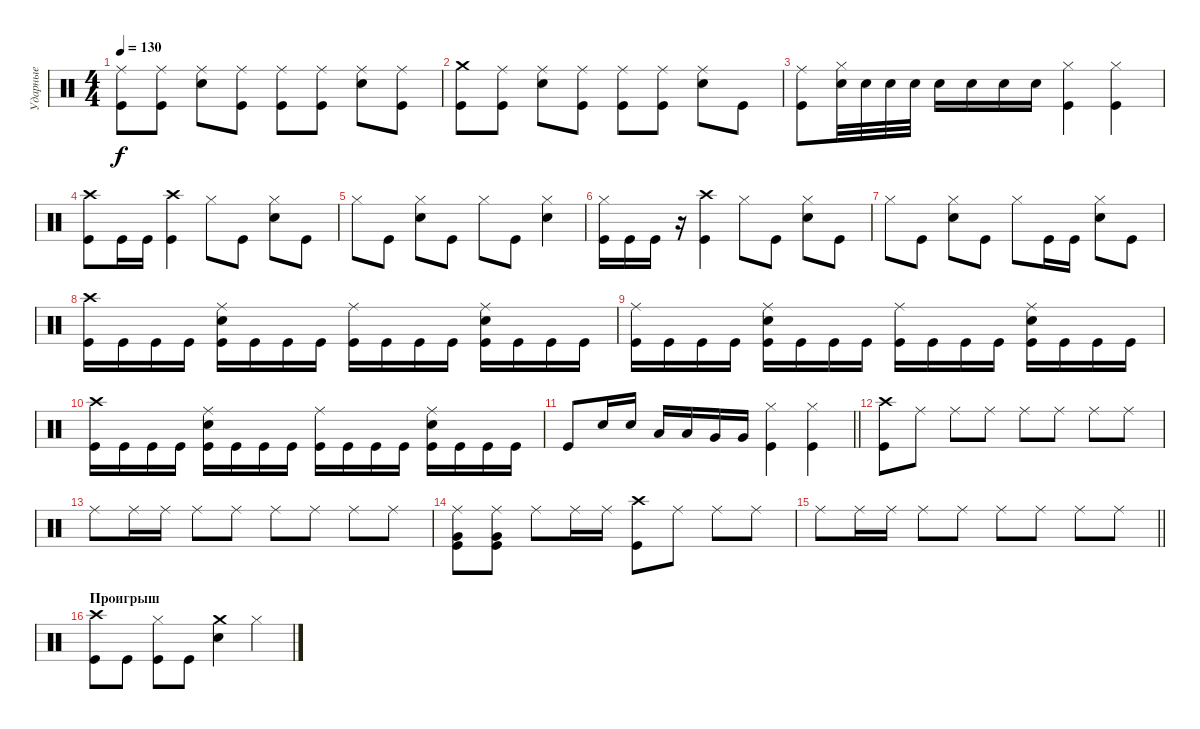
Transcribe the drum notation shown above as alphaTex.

\track ("Ударные" "Ударные") {instrument percussion}
\staff {score}
\articulation defaults
\ts (4 4)
\tempo 130
\clef neutral
\ks c
("Ride (middle)" "Kick (hit)").8{dy f} ("Ride (middle)" "Kick (hit)").8 ("Ride (middle)" "Snare (hit) 2").8 ("Ride (middle)" "Kick (hit)").8 ("Ride (middle)" "Kick (hit)").8 ("Ride (middle)" "Kick (hit)").8 ("Ride (middle)" "Snare (hit) 2").8 ("Ride (middle)" "Kick (hit)").8 |
("Crash medium (hit)" "Kick (hit)").8 ("Ride (middle)" "Kick (hit)").8 ("Ride (middle)" "Snare (hit) 2").8 ("Ride (middle)" "Kick (hit)").8 ("Ride (middle)" "Kick (hit)").8 ("Ride (middle)" "Kick (hit)").8 ("Ride (middle)" "Snare (hit) 2").8 "Kick (hit)".8 |
("Ride (middle)" "Kick (hit)").8 ("Hi-Hat (closed)" "Snare (hit) 2").32 "Snare (hit) 2".32 "Snare (hit) 2".32 "Snare (hit) 2".32 "Snare (hit) 2".16 "Snare (hit) 2".16 "Snare (hit) 2".16 "Snare (hit) 2".16 ("Hi-Hat (closed)" "Kick (hit)").4 ("Hi-Hat (closed)" "Kick (hit)").4 |
("Crash high (hit)" "Kick (hit)").8 "Kick (hit)".16 "Kick (hit)".16 ("Crash high (hit)" "Kick (hit)").4 "Hi-Hat (closed)".8 "Kick (hit)".8 ("Hi-Hat (closed)" "Snare (hit) 2").8 "Kick (hit)".8 |
"Hi-Hat (closed)".8 "Kick (hit)".8 ("Hi-Hat (closed)" "Snare (hit) 2").8 "Kick (hit)".8 "Hi-Hat (closed)".8 "Kick (hit)".8 ("Hi-Hat (closed)" "Snare (hit) 2").4 |
("Hi-Hat (closed)" "Kick (hit)").16 "Kick (hit)".16 "Kick (hit)".16 r.16 ("Crash high (hit)" "Kick (hit)").4 "Hi-Hat (closed)".8 "Kick (hit)".8 ("Hi-Hat (closed)" "Snare (hit) 2").8 "Kick (hit)".8 |
"Hi-Hat (closed)".8 "Kick (hit)".8 ("Hi-Hat (closed)" "Snare (hit) 2").8 "Kick (hit)".8 "Hi-Hat (closed)".8 "Kick (hit)".16 "Kick (hit)".16 ("Hi-Hat (closed)" "Snare (hit) 2").8 "Kick (hit)".8 |
("Crash high (hit)" "Kick (hit)").16 "Kick (hit)".16 "Kick (hit)".16 "Kick (hit)".16 ("Ride (middle)" "Snare (hit) 2" "Kick (hit)").16 "Kick (hit)".16 "Kick (hit)".16 "Kick (hit)".16 ("Ride (middle)" "Kick (hit)").16 "Kick (hit)".16 "Kick (hit)".16 "Kick (hit)".16 ("Ride (middle)" "Snare (hit) 2" "Kick (hit)").16 "Kick (hit)".16 "Kick (hit)".16 "Kick (hit)".16 |
("Ride (middle)" "Kick (hit)").16 "Kick (hit)".16 "Kick (hit)".16 "Kick (hit)".16 ("Ride (middle)" "Snare (hit) 2" "Kick (hit)").16 "Kick (hit)".16 "Kick (hit)".16 "Kick (hit)".16 ("Ride (middle)" "Kick (hit)").16 "Kick (hit)".16 "Kick (hit)".16 "Kick (hit)".16 ("Ride (middle)" "Snare (hit) 2" "Kick (hit)").16 "Kick (hit)".16 "Kick (hit)".16 "Kick (hit)".16 |
("Crash high (hit)" "Kick (hit)").16 "Kick (hit)".16 "Kick (hit)".16 "Kick (hit)".16 ("Ride (middle)" "Snare (hit) 2" "Kick (hit)").16 "Kick (hit)".16 "Kick (hit)".16 "Kick (hit)".16 ("Ride (middle)" "Kick (hit)").16 "Kick (hit)".16 "Kick (hit)".16 "Kick (hit)".16 ("Ride (middle)" "Snare (hit) 2" "Kick (hit)").16 "Kick (hit)".16 "Kick (hit)".16 "Kick (hit)".16 |
\barLineRight lightlight "Kick (hit)".8 "Snare (hit) 2".16 "Snare (hit) 2".16 "Low Tom (hit)".16 "Low Tom (hit)".16 "Very Low Tom (hit)".16 "Very Low Tom (hit)".16
("Hi-Hat (closed)" "Kick (hit)").4 ("Hi-Hat (closed)" "Kick (hit)").4 |
("Crash high (hit)" "Kick (hit)").8 "Ride (middle)".8 "Ride (middle)".8 "Ride (middle)".8 "Ride (middle)".8 "Ride (middle)".8 "Ride (middle)".8 "Ride (middle)".8 |
"Ride (middle)".8 "Ride (middle)".16 "Ride (middle)".16 "Ride (middle)".8 "Ride (middle)".8 "Ride (middle)".8 "Ride (middle)".8 "Ride (middle)".8 "Ride (middle)".8 |
("Ride (middle)" "Very Low Tom (hit)" "Kick (hit)").8 ("Ride (middle)" "Very Low Tom (hit)" "Kick (hit)").8 "Ride (middle)".8 "Ride (middle)".16 "Ride (middle)".16 ("Crash high (hit)" "Kick (hit)").8 "Ride (middle)".8 "Ride (middle)".8 "Ride (middle)".8 |
\barLineRight lightlight "Ride (middle)".8 "Ride (middle)".16 "Ride (middle)".16 "Ride (middle)".8 "Ride (middle)".8 "Ride (middle)".8 "Ride (middle)".8 "Ride (middle)".8 "Ride (middle)".8
|
\section ("" "Проигрыш")
("Crash high (hit)" "Kick (hit)").8 "Kick (hit)".8 ("Hi-Hat (closed)" "Kick (hit)").8 "Kick (hit)".8 ("Crash medium (hit)" "Snare (hit) 2").4 "Hi-Hat (closed)".4
